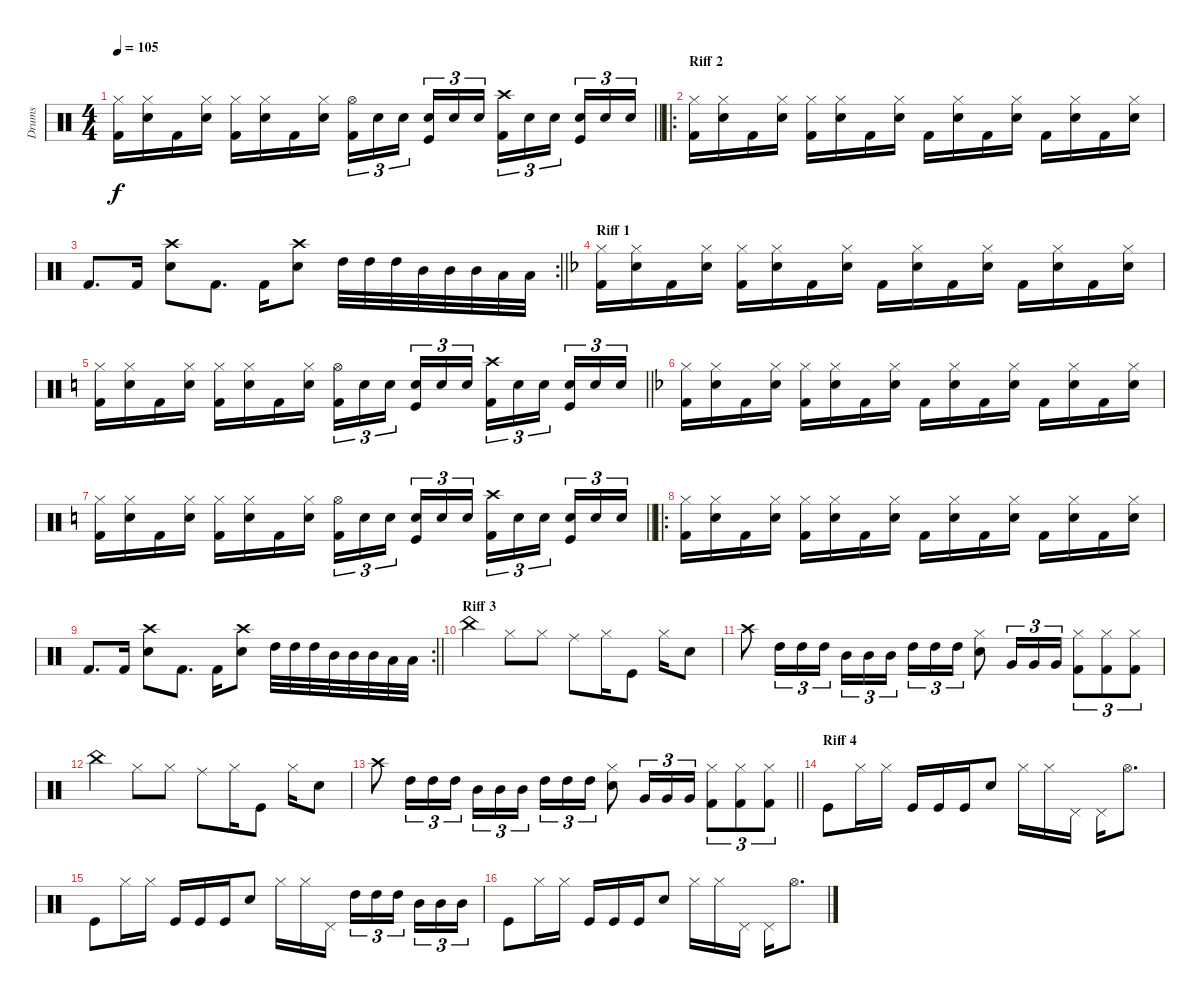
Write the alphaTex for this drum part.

\track ("Drums" "Drums") {instrument percussion}
\staff {score}
\articulation defaults
\ts (4 4)
\tempo 105
\clef neutral
\barLineRight lightlight
\ks c
("Hi-Hat (closed)" "Kick (hit) 2").16{dy f} ("Hi-Hat (closed)" "Snare (hit) 2").16 "Kick (hit) 2".16 ("Hi-Hat (closed)" "Snare (hit) 2").16 ("Hi-Hat (closed)" "Kick (hit) 2").16 ("Hi-Hat (closed)" "Snare (hit) 2").16 "Kick (hit) 2".16 ("Hi-Hat (closed)" "Snare (hit) 2").16 ("Hi-Hat (open)" "Kick (hit) 2").16{tu (3 2)} "Snare (hit) 2".16{tu (3 2)} "Snare (hit) 2".16{tu (3 2) beam splitsecondary} ("Kick (hit)" "Snare (hit) 2").16{tu (3 2)} "Snare (hit) 2".16{tu (3 2)} "Snare (hit) 2".16{tu (3 2)} ("Crash high (hit)" "Kick (hit) 2").16{tu (3 2)} "Snare (hit) 2".16{tu (3 2)} "Snare (hit) 2".16{tu (3 2) beam splitsecondary} ("Kick (hit)" "Snare (hit) 2").16{tu (3 2)} "Snare (hit) 2".16{tu (3 2)} "Snare (hit) 2".16{tu (3 2)} |
\ro
\section ("" "Riff 2")
("Hi-Hat (closed)" "Kick (hit) 2").16 ("Hi-Hat (closed)" "Snare (hit) 2").16 "Kick (hit) 2".16 ("Hi-Hat (closed)" "Snare (hit) 2").16 ("Hi-Hat (closed)" "Kick (hit) 2").16 ("Hi-Hat (closed)" "Snare (hit) 2").16 "Kick (hit) 2".16 ("Hi-Hat (closed)" "Snare (hit) 2").16 "Kick (hit) 2".16 ("Hi-Hat (closed)" "Snare (hit) 2").16 "Kick (hit) 2".16 ("Hi-Hat (closed)" "Snare (hit) 2").16 "Kick (hit) 2".16 ("Hi-Hat (closed)" "Snare (hit) 2").16 "Kick (hit) 2".16 ("Hi-Hat (closed)" "Snare (hit) 2").16 |
\rc 2
\barLineRight lightlight "Kick (hit) 2".8{d} "Kick (hit) 2".16
("Crash high (hit)" "Snare (hit) 2").8 "Kick (hit) 2".8{d} "Kick (hit) 2".16 ("Crash high (hit)" "Snare (hit) 2").8 "High Tom (hit)".32 "High Tom (hit)".32 "High Tom (hit)".32 "Mid Tom (hit)".32 "Mid Tom (hit)".32 "Mid Tom (hit)".32 "Low Tom (hit)".32 "Low Tom (hit)".32 |
\section ("" "Riff 1")
\ks f
("Hi-Hat (closed)" "Kick (hit) 2").16 ("Hi-Hat (closed)" "Snare (hit) 2").16 "Kick (hit) 2".16 ("Hi-Hat (closed)" "Snare (hit) 2").16 ("Hi-Hat (closed)" "Kick (hit) 2").16 ("Hi-Hat (closed)" "Snare (hit) 2").16 "Kick (hit) 2".16 ("Hi-Hat (closed)" "Snare (hit) 2").16 "Kick (hit) 2".16 ("Hi-Hat (closed)" "Snare (hit) 2").16 "Kick (hit) 2".16 ("Hi-Hat (closed)" "Snare (hit) 2").16 "Kick (hit) 2".16 ("Hi-Hat (closed)" "Snare (hit) 2").16 "Kick (hit) 2".16 ("Hi-Hat (closed)" "Snare (hit) 2").16 |
\barLineRight lightlight
\ks c
("Hi-Hat (closed)" "Kick (hit) 2").16 ("Hi-Hat (closed)" "Snare (hit) 2").16 "Kick (hit) 2".16 ("Hi-Hat (closed)" "Snare (hit) 2").16 ("Hi-Hat (closed)" "Kick (hit) 2").16 ("Hi-Hat (closed)" "Snare (hit) 2").16 "Kick (hit) 2".16 ("Hi-Hat (closed)" "Snare (hit) 2").16 ("Hi-Hat (open)" "Kick (hit) 2").16{tu (3 2)} "Snare (hit) 2".16{tu (3 2)} "Snare (hit) 2".16{tu (3 2) beam splitsecondary} ("Kick (hit)" "Snare (hit) 2").16{tu (3 2)} "Snare (hit) 2".16{tu (3 2)} "Snare (hit) 2".16{tu (3 2)} ("Crash high (hit)" "Kick (hit) 2").16{tu (3 2)} "Snare (hit) 2".16{tu (3 2)} "Snare (hit) 2".16{tu (3 2) beam splitsecondary} ("Kick (hit)" "Snare (hit) 2").16{tu (3 2)} "Snare (hit) 2".16{tu (3 2)} "Snare (hit) 2".16{tu (3 2)} |
\ks f
("Hi-Hat (closed)" "Kick (hit) 2").16 ("Hi-Hat (closed)" "Snare (hit) 2").16 "Kick (hit) 2".16 ("Hi-Hat (closed)" "Snare (hit) 2").16 ("Hi-Hat (closed)" "Kick (hit) 2").16 ("Hi-Hat (closed)" "Snare (hit) 2").16 "Kick (hit) 2".16 ("Hi-Hat (closed)" "Snare (hit) 2").16 "Kick (hit) 2".16 ("Hi-Hat (closed)" "Snare (hit) 2").16 "Kick (hit) 2".16 ("Hi-Hat (closed)" "Snare (hit) 2").16 "Kick (hit) 2".16 ("Hi-Hat (closed)" "Snare (hit) 2").16 "Kick (hit) 2".16 ("Hi-Hat (closed)" "Snare (hit) 2").16 |
\barLineRight lightlight
\ks c
("Hi-Hat (closed)" "Kick (hit) 2").16 ("Hi-Hat (closed)" "Snare (hit) 2").16 "Kick (hit) 2".16 ("Hi-Hat (closed)" "Snare (hit) 2").16 ("Hi-Hat (closed)" "Kick (hit) 2").16 ("Hi-Hat (closed)" "Snare (hit) 2").16 "Kick (hit) 2".16 ("Hi-Hat (closed)" "Snare (hit) 2").16 ("Hi-Hat (open)" "Kick (hit) 2").16{tu (3 2)} "Snare (hit) 2".16{tu (3 2)} "Snare (hit) 2".16{tu (3 2) beam splitsecondary} ("Kick (hit)" "Snare (hit) 2").16{tu (3 2)} "Snare (hit) 2".16{tu (3 2)} "Snare (hit) 2".16{tu (3 2)} ("Crash high (hit)" "Kick (hit) 2").16{tu (3 2)} "Snare (hit) 2".16{tu (3 2)} "Snare (hit) 2".16{tu (3 2) beam splitsecondary} ("Kick (hit)" "Snare (hit) 2").16{tu (3 2)} "Snare (hit) 2".16{tu (3 2)} "Snare (hit) 2".16{tu (3 2)} |
\ro
("Hi-Hat (closed)" "Kick (hit) 2").16 ("Hi-Hat (closed)" "Snare (hit) 2").16 "Kick (hit) 2".16 ("Hi-Hat (closed)" "Snare (hit) 2").16 ("Hi-Hat (closed)" "Kick (hit) 2").16 ("Hi-Hat (closed)" "Snare (hit) 2").16 "Kick (hit) 2".16 ("Hi-Hat (closed)" "Snare (hit) 2").16 "Kick (hit) 2".16 ("Hi-Hat (closed)" "Snare (hit) 2").16 "Kick (hit) 2".16 ("Hi-Hat (closed)" "Snare (hit) 2").16 "Kick (hit) 2".16 ("Hi-Hat (closed)" "Snare (hit) 2").16 "Kick (hit) 2".16 ("Hi-Hat (closed)" "Snare (hit) 2").16 |
\rc 2
\barLineRight lightlight "Kick (hit) 2".8{d} "Kick (hit) 2".16
("Crash high (hit)" "Snare (hit) 2").8 "Kick (hit) 2".8{d} "Kick (hit) 2".16 ("Crash high (hit)" "Snare (hit) 2").8 "High Tom (hit)".32 "High Tom (hit)".32 "High Tom (hit)".32 "Mid Tom (hit)".32 "Mid Tom (hit)".32 "Mid Tom (hit)".32 "Low Tom (hit)".32 "Low Tom (hit)".32 |
\section ("" "Riff 3")
"China (hit)".4 "Hi-Hat (closed)".8 "Hi-Hat (closed)".8 "Ride (middle)".8 "Hi-Hat (closed)".16 "Kick (hit)".8 "Hi-Hat (closed)".16 "Snare (hit) 2".8 |
"Crash high (hit)".8 "High Tom (hit)".16{tu (3 2)} "High Tom (hit)".16{tu (3 2)} "High Tom (hit)".16{tu (3 2)} "Mid Tom (hit)".16{tu (3 2)} "Mid Tom (hit)".16{tu (3 2)} "Mid Tom (hit)".16{tu (3 2) beam splitsecondary} "High Tom (hit)".16{tu (3 2)} "High Tom (hit)".16{tu (3 2)} "High Tom (hit)".16{tu (3 2)} ("Hi-Hat (closed)" "Snare (hit) 2").8 "Very Low Tom (hit)".16{tu (3 2)} "Very Low Tom (hit)".16{tu (3 2)} "Very Low Tom (hit)".16{tu (3 2)} ("Hi-Hat (closed)" "Kick (hit) 2").8{tu (3 2)} ("Hi-Hat (closed)" "Kick (hit) 2").8{tu (3 2)} ("Hi-Hat (closed)" "Kick (hit) 2").8{tu (3 2)} |
"China (hit)".4 "Hi-Hat (closed)".8 "Hi-Hat (closed)".8 "Ride (middle)".8 "Hi-Hat (closed)".16 "Kick (hit)".8 "Hi-Hat (closed)".16 "Snare (hit) 2".8 |
\barLineRight lightlight "Crash high (hit)".8 "High Tom (hit)".16{tu (3 2)} "High Tom (hit)".16{tu (3 2)} "High Tom (hit)".16{tu (3 2)} "Mid Tom (hit)".16{tu (3 2)} "Mid Tom (hit)".16{tu (3 2)} "Mid Tom (hit)".16{tu (3 2) beam splitsecondary} "High Tom (hit)".16{tu (3 2)} "High Tom (hit)".16{tu (3 2)} "High Tom (hit)".16{tu (3 2)}
("Hi-Hat (closed)" "Snare (hit) 2").8 "Very Low Tom (hit)".16{tu (3 2)} "Very Low Tom (hit)".16{tu (3 2)} "Very Low Tom (hit)".16{tu (3 2)} ("Hi-Hat (closed)" "Kick (hit) 2").8{tu (3 2)} ("Hi-Hat (closed)" "Kick (hit) 2").8{tu (3 2)} ("Hi-Hat (closed)" "Kick (hit) 2").8{tu (3 2)} |
\section ("" "Riff 4")
"Kick (hit)".8 "Hi-Hat (closed)".16 "Hi-Hat (closed)".16 "Kick (hit)".16 "Kick (hit)".16 "Kick (hit)".16 "Snare (hit) 2".8 "Hi-Hat (closed)".16 "Hi-Hat (closed)".16 "Pedal Hi-Hat (hit)".16 "Pedal Hi-Hat (hit)".16 "Hi-Hat (open)".8{d} |
"Kick (hit)".8 "Hi-Hat (closed)".16 "Hi-Hat (closed)".16 "Kick (hit)".16 "Kick (hit)".16 "Kick (hit)".16 "Snare (hit) 2".8 "Hi-Hat (closed)".16 "Hi-Hat (closed)".16 "Pedal Hi-Hat (hit)".16 "High Tom (hit)".16{tu (3 2)} "High Tom (hit)".16{tu (3 2)} "High Tom (hit)".16{tu (3 2) beam splitsecondary} "Mid Tom (hit)".16{tu (3 2)} "Mid Tom (hit)".16{tu (3 2)} "Mid Tom (hit)".16{tu (3 2)} |
"Kick (hit)".8 "Hi-Hat (closed)".16 "Hi-Hat (closed)".16 "Kick (hit)".16 "Kick (hit)".16 "Kick (hit)".16 "Snare (hit) 2".8 "Hi-Hat (closed)".16 "Hi-Hat (closed)".16 "Pedal Hi-Hat (hit)".16 "Pedal Hi-Hat (hit)".16 "Hi-Hat (open)".8{d}
